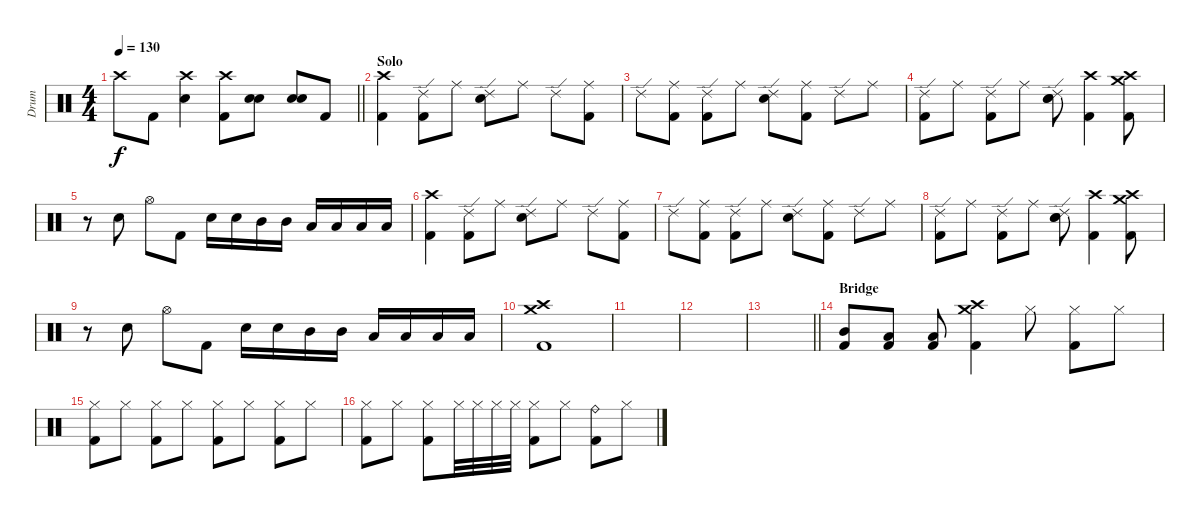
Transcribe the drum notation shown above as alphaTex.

\track ("Drum" "Drum") {instrument percussion}
\staff {score}
\articulation defaults
\ts (4 4)
\tempo 130
\clef neutral
\barLineRight lightlight
\ks c "Crash high (hit)".8{dy f} "Kick (hit) 2".8
("Crash high (hit)" "Electric Snare (hit)").4 ("Crash high (hit)" "Kick (hit) 2").8 ("Electric Snare (hit)" "Electric Snare (hit)").8 ("Electric Snare (hit)" "Electric Snare (hit)").8 "Kick (hit) 2".8 |
\section ("" "Solo")
("Crash high (hit)" "Kick (hit) 2").4 ("Ride (edge) 2" "Kick (hit) 2").8 "Ride (middle)".8 ("Ride (edge) 2" "Electric Snare (hit)").8 "Ride (middle)".8 "Ride (edge) 2".8 ("Ride (middle)" "Kick (hit) 2").8 |
"Ride (edge) 2".8 ("Ride (middle)" "Kick (hit) 2").8 ("Ride (edge) 2" "Kick (hit) 2").8 "Ride (middle)".8 ("Ride (edge) 2" "Electric Snare (hit)").8 ("Ride (middle)" "Kick (hit) 2").8 "Ride (edge) 2".8 "Ride (middle)".8 |
("Ride (edge) 2" "Kick (hit) 2").8 "Ride (middle)".8 ("Ride (edge) 2" "Kick (hit) 2").8 "Ride (middle)".8 ("Ride (edge) 2" "Electric Snare (hit)" "Snare (hit) 2").8 ("Crash high (hit)" "Kick (hit) 2").4 ("Crash high (hit)" "Crash medium (hit)" "Kick (hit) 2").8 |
r.8 "Electric Snare (hit)".8 "Hi-Hat (open)".8 "Kick (hit) 2".8 "Electric Snare (hit)".16 "Electric Snare (hit)".16 "Mid Tom (hit)".16 "Mid Tom (hit)".16 "Low Tom (hit)".16 "Low Tom (hit)".16 "Low Floor Tom (hit)".16 "Low Floor Tom (hit)".16 |
("Crash high (hit)" "Kick (hit) 2").4 ("Ride (edge) 2" "Kick (hit) 2").8 "Ride (middle)".8 ("Ride (edge) 2" "Electric Snare (hit)").8 "Ride (middle)".8 "Ride (edge) 2".8 ("Ride (middle)" "Kick (hit) 2").8 |
"Ride (edge) 2".8 ("Ride (middle)" "Kick (hit) 2").8 ("Ride (edge) 2" "Kick (hit) 2").8 "Ride (middle)".8 ("Ride (edge) 2" "Electric Snare (hit)").8 ("Ride (middle)" "Kick (hit) 2").8 "Ride (edge) 2".8 "Ride (middle)".8 |
("Ride (edge) 2" "Kick (hit) 2").8 "Ride (middle)".8 ("Ride (edge) 2" "Kick (hit) 2").8 "Ride (middle)".8 ("Ride (edge) 2" "Electric Snare (hit)" "Snare (hit) 2").8 ("Crash high (hit)" "Kick (hit) 2").4 ("Crash high (hit)" "Crash medium (hit)" "Kick (hit) 2").8 |
r.8 "Electric Snare (hit)".8 "Hi-Hat (open)".8 "Kick (hit) 2".8 "Electric Snare (hit)".16 "Electric Snare (hit)".16 "Mid Tom (hit)".16 "Mid Tom (hit)".16 "Low Tom (hit)".16 "Low Tom (hit)".16 "Low Floor Tom (hit)".16 "Low Floor Tom (hit)".16 |
("Crash high (hit)" "Crash medium (hit)" "Kick (hit) 2").1 |
|
|
\barLineRight lightlight
|
\section ("" "Bridge")
("Mid Tom (hit)" "Kick (hit) 2").8 ("Low Tom (hit)" "Kick (hit) 2").8 ("Low Floor Tom (hit)" "Kick (hit) 2").8 ("Crash medium (hit)" "Crash high (hit)" "Kick (hit) 2").4 "Hi-Hat (closed)".8 ("Hi-Hat (closed)" "Kick (hit) 2").8 "Hi-Hat (closed)".8 |
("Hi-Hat (closed)" "Kick (hit) 2").8 "Hi-Hat (closed)".8 ("Hi-Hat (closed)" "Kick (hit) 2").8 "Hi-Hat (closed)".8 ("Hi-Hat (closed)" "Kick (hit) 2").8 "Hi-Hat (closed)".8 ("Hi-Hat (closed)" "Kick (hit) 2").8 "Hi-Hat (closed)".8 |
("Hi-Hat (closed)" "Kick (hit) 2").8 "Hi-Hat (closed)".8 ("Hi-Hat (closed)" "Kick (hit) 2").8 "Hi-Hat (closed)".32 "Hi-Hat (closed)".32 "Hi-Hat (closed)".32 "Hi-Hat (closed)".32 ("Hi-Hat (closed)" "Kick (hit) 2").8 "Hi-Hat (closed)".8 ("Ride (bell)" "Kick (hit) 2").8 "Hi-Hat (closed)".8
